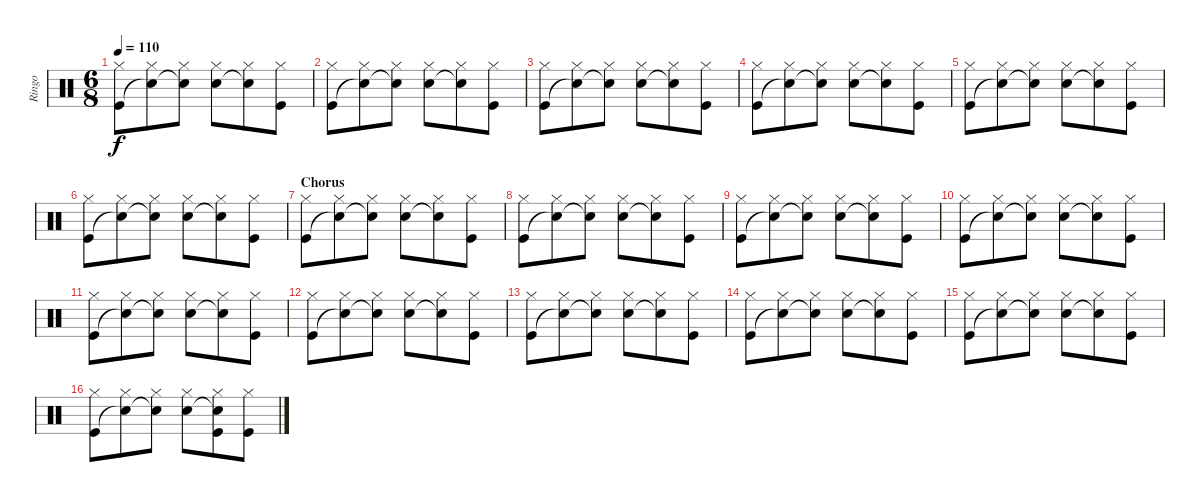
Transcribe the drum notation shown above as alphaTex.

\track ("Ringo" "Ringo") {instrument percussion}
\staff {score}
\articulation defaults
\ts (6 8)
\tempo 110
\clef neutral
\ks c
("Hi-Hat (closed)" "Kick (hit)").8{dy f} ("Hi-Hat (closed)" "Snare (hit)"{t}).8 ("Hi-Hat (closed)" "Snare (hit)"{t}).8 ("Hi-Hat (closed)" "Snare (hit) 2").8 ("Hi-Hat (closed)" "Snare (hit)"{t}).8 ("Hi-Hat (closed)" "Kick (hit)").8 |
("Hi-Hat (closed)" "Kick (hit)").8 ("Hi-Hat (closed)" "Snare (hit)"{t}).8 ("Hi-Hat (closed)" "Snare (hit)"{t}).8 ("Hi-Hat (closed)" "Snare (hit) 2").8 ("Hi-Hat (closed)" "Snare (hit)"{t}).8 ("Hi-Hat (closed)" "Kick (hit)").8 |
("Hi-Hat (closed)" "Kick (hit)").8 ("Hi-Hat (closed)" "Snare (hit)"{t}).8 ("Hi-Hat (closed)" "Snare (hit)"{t}).8 ("Hi-Hat (closed)" "Snare (hit) 2").8 ("Hi-Hat (closed)" "Snare (hit)"{t}).8 ("Hi-Hat (closed)" "Kick (hit)").8 |
("Hi-Hat (closed)" "Kick (hit)").8 ("Hi-Hat (closed)" "Snare (hit)"{t}).8 ("Hi-Hat (closed)" "Snare (hit)"{t}).8 ("Hi-Hat (closed)" "Snare (hit) 2").8 ("Hi-Hat (closed)" "Snare (hit)"{t}).8 ("Hi-Hat (closed)" "Kick (hit)").8 |
("Hi-Hat (closed)" "Kick (hit)").8 ("Hi-Hat (closed)" "Snare (hit)"{t}).8 ("Hi-Hat (closed)" "Snare (hit)"{t}).8 ("Hi-Hat (closed)" "Snare (hit) 2").8 ("Hi-Hat (closed)" "Snare (hit)"{t}).8 ("Hi-Hat (closed)" "Kick (hit)").8 |
("Hi-Hat (closed)" "Kick (hit)").8 ("Hi-Hat (closed)" "Snare (hit)"{t}).8 ("Hi-Hat (closed)" "Snare (hit)"{t}).8 ("Hi-Hat (closed)" "Snare (hit) 2").8 ("Hi-Hat (closed)" "Snare (hit)"{t}).8 ("Hi-Hat (closed)" "Kick (hit)").8 |
\section ("" "Chorus")
("Hi-Hat (closed)" "Kick (hit)").8 ("Hi-Hat (closed)" "Snare (hit)"{t}).8 ("Hi-Hat (closed)" "Snare (hit)"{t}).8 ("Hi-Hat (closed)" "Snare (hit) 2").8 ("Hi-Hat (closed)" "Snare (hit)"{t}).8 ("Hi-Hat (closed)" "Kick (hit)").8 |
("Hi-Hat (closed)" "Kick (hit)").8 ("Hi-Hat (closed)" "Snare (hit)"{t}).8 ("Hi-Hat (closed)" "Snare (hit)"{t}).8 ("Hi-Hat (closed)" "Snare (hit) 2").8 ("Hi-Hat (closed)" "Snare (hit)"{t}).8 ("Hi-Hat (closed)" "Kick (hit)").8 |
("Hi-Hat (closed)" "Kick (hit)").8 ("Hi-Hat (closed)" "Snare (hit)"{t}).8 ("Hi-Hat (closed)" "Snare (hit)"{t}).8 ("Hi-Hat (closed)" "Snare (hit) 2").8 ("Hi-Hat (closed)" "Snare (hit)"{t}).8 ("Hi-Hat (closed)" "Kick (hit)").8 |
("Hi-Hat (closed)" "Kick (hit)").8 ("Hi-Hat (closed)" "Snare (hit)"{t}).8 ("Hi-Hat (closed)" "Snare (hit)"{t}).8 ("Hi-Hat (closed)" "Snare (hit) 2").8 ("Hi-Hat (closed)" "Snare (hit)"{t}).8 ("Hi-Hat (closed)" "Kick (hit)").8 |
("Hi-Hat (closed)" "Kick (hit)").8 ("Hi-Hat (closed)" "Snare (hit)"{t}).8 ("Hi-Hat (closed)" "Snare (hit)"{t}).8 ("Hi-Hat (closed)" "Snare (hit) 2").8 ("Hi-Hat (closed)" "Snare (hit)"{t}).8 ("Hi-Hat (closed)" "Kick (hit)").8 |
("Hi-Hat (closed)" "Kick (hit)").8 ("Hi-Hat (closed)" "Snare (hit)"{t}).8 ("Hi-Hat (closed)" "Snare (hit)"{t}).8 ("Hi-Hat (closed)" "Snare (hit) 2").8 ("Hi-Hat (closed)" "Snare (hit)"{t}).8 ("Hi-Hat (closed)" "Kick (hit)").8 |
("Hi-Hat (closed)" "Kick (hit)").8 ("Hi-Hat (closed)" "Snare (hit)"{t}).8 ("Hi-Hat (closed)" "Snare (hit)"{t}).8 ("Hi-Hat (closed)" "Snare (hit) 2").8 ("Hi-Hat (closed)" "Snare (hit)"{t}).8 ("Hi-Hat (closed)" "Kick (hit)").8 |
("Hi-Hat (closed)" "Kick (hit)").8 ("Hi-Hat (closed)" "Snare (hit)"{t}).8 ("Hi-Hat (closed)" "Snare (hit)"{t}).8 ("Hi-Hat (closed)" "Snare (hit) 2").8 ("Hi-Hat (closed)" "Snare (hit)"{t}).8 ("Hi-Hat (closed)" "Kick (hit)").8 |
("Hi-Hat (closed)" "Kick (hit)").8 ("Hi-Hat (closed)" "Snare (hit)"{t}).8 ("Hi-Hat (closed)" "Snare (hit)"{t}).8 ("Hi-Hat (closed)" "Snare (hit) 2").8 ("Hi-Hat (closed)" "Snare (hit)"{t}).8 ("Hi-Hat (closed)" "Kick (hit)").8 |
("Hi-Hat (closed)" "Kick (hit)").8 ("Hi-Hat (closed)" "Snare (hit)"{t}).8 ("Hi-Hat (closed)" "Snare (hit)"{t}).8 ("Hi-Hat (closed)" "Snare (hit) 2").8 ("Hi-Hat (closed)" "Snare (hit)"{t} "Kick (hit)").8 ("Hi-Hat (closed)" "Kick (hit)").8
